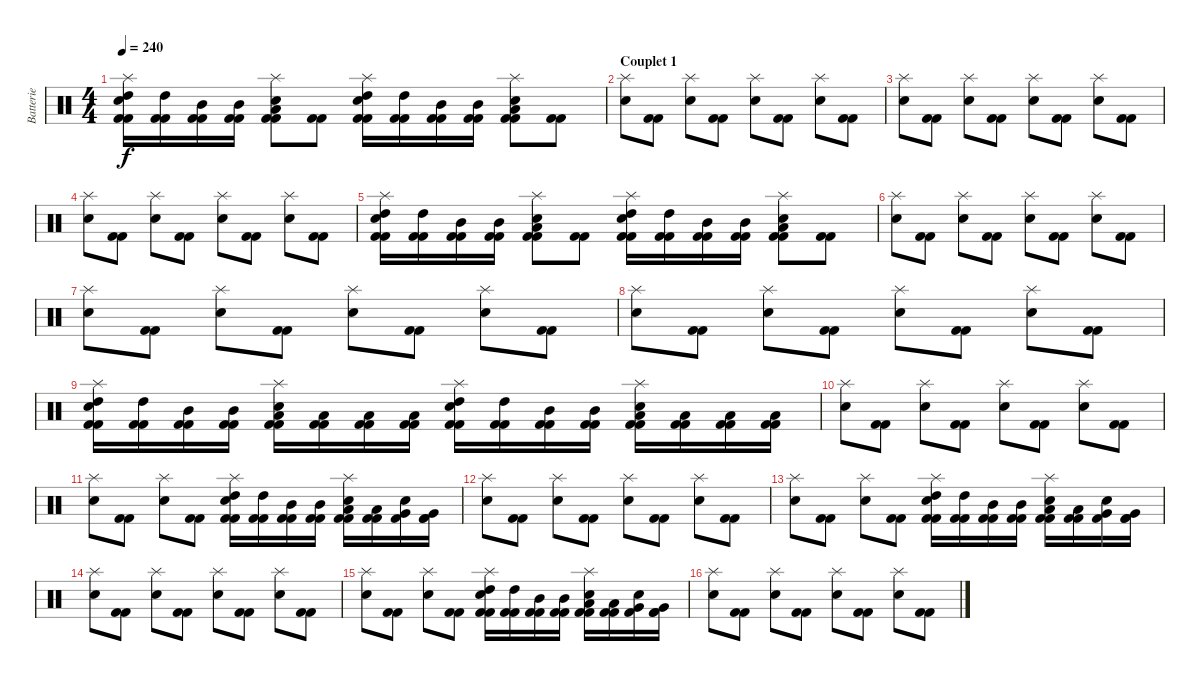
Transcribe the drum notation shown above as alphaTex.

\track ("Batterie" "Batterie") {instrument percussion}
\staff {score}
\articulation defaults
\ts (4 4)
\tempo 240
\clef neutral
\ks c
("Splash (hit)" "Snare (hit) 2" "High Tom (hit)" "Kick (hit) 2" "Kick (hit) 2").16{dy f} ("High Tom (hit)" "Kick (hit) 2" "Kick (hit) 2").16 ("Mid Tom (hit)" "Kick (hit) 2" "Kick (hit) 2").16 ("Mid Tom (hit)" "Kick (hit) 2" "Kick (hit) 2").16 ("Splash (hit)" "Snare (hit) 2" "Low Tom (hit)" "Kick (hit) 2" "Kick (hit) 2").8 ("Kick (hit) 2" "Kick (hit) 2").8 ("Splash (hit)" "Snare (hit) 2" "High Tom (hit)" "Kick (hit) 2" "Kick (hit) 2").16 ("High Tom (hit)" "Kick (hit) 2" "Kick (hit) 2").16 ("Mid Tom (hit)" "Kick (hit) 2" "Kick (hit) 2").16 ("Mid Tom (hit)" "Kick (hit) 2" "Kick (hit) 2").16 ("Splash (hit)" "Snare (hit) 2" "Low Tom (hit)" "Kick (hit) 2" "Kick (hit) 2").8 ("Kick (hit) 2" "Kick (hit) 2").8 |
\section ("" "Couplet 1")
("Splash (hit)" "Snare (hit) 2").8 ("Kick (hit) 2" "Kick (hit) 2").8 ("Splash (hit)" "Snare (hit) 2").8 ("Kick (hit) 2" "Kick (hit) 2").8 ("Splash (hit)" "Snare (hit) 2").8 ("Kick (hit) 2" "Kick (hit) 2").8 ("Splash (hit)" "Snare (hit) 2").8 ("Kick (hit) 2" "Kick (hit) 2").8 |
("Splash (hit)" "Snare (hit) 2").8 ("Kick (hit) 2" "Kick (hit) 2").8 ("Splash (hit)" "Snare (hit) 2").8 ("Kick (hit) 2" "Kick (hit) 2").8 ("Splash (hit)" "Snare (hit) 2").8 ("Kick (hit) 2" "Kick (hit) 2").8 ("Splash (hit)" "Snare (hit) 2").8 ("Kick (hit) 2" "Kick (hit) 2").8 |
("Splash (hit)" "Snare (hit) 2").8 ("Kick (hit) 2" "Kick (hit) 2").8 ("Splash (hit)" "Snare (hit) 2").8 ("Kick (hit) 2" "Kick (hit) 2").8 ("Splash (hit)" "Snare (hit) 2").8 ("Kick (hit) 2" "Kick (hit) 2").8 ("Splash (hit)" "Snare (hit) 2").8 ("Kick (hit) 2" "Kick (hit) 2").8 |
("Splash (hit)" "Snare (hit) 2" "High Tom (hit)" "Kick (hit) 2" "Kick (hit) 2").16 ("High Tom (hit)" "Kick (hit) 2" "Kick (hit) 2").16 ("Mid Tom (hit)" "Kick (hit) 2" "Kick (hit) 2").16 ("Mid Tom (hit)" "Kick (hit) 2" "Kick (hit) 2").16 ("Splash (hit)" "Snare (hit) 2" "Low Tom (hit)" "Kick (hit) 2" "Kick (hit) 2").8 ("Kick (hit) 2" "Kick (hit) 2").8 ("Splash (hit)" "Snare (hit) 2" "High Tom (hit)" "Kick (hit) 2" "Kick (hit) 2").16 ("High Tom (hit)" "Kick (hit) 2" "Kick (hit) 2").16 ("Mid Tom (hit)" "Kick (hit) 2" "Kick (hit) 2").16 ("Mid Tom (hit)" "Kick (hit) 2" "Kick (hit) 2").16 ("Splash (hit)" "Snare (hit) 2" "Low Tom (hit)" "Kick (hit) 2" "Kick (hit) 2").8 ("Kick (hit) 2" "Kick (hit) 2").8 |
("Splash (hit)" "Snare (hit) 2").8 ("Kick (hit) 2" "Kick (hit) 2").8 ("Splash (hit)" "Snare (hit) 2").8 ("Kick (hit) 2" "Kick (hit) 2").8 ("Splash (hit)" "Snare (hit) 2").8 ("Kick (hit) 2" "Kick (hit) 2").8 ("Splash (hit)" "Snare (hit) 2").8 ("Kick (hit) 2" "Kick (hit) 2").8 |
("Splash (hit)" "Snare (hit) 2").8 ("Kick (hit) 2" "Kick (hit) 2").8 ("Splash (hit)" "Snare (hit) 2").8 ("Kick (hit) 2" "Kick (hit) 2").8 ("Splash (hit)" "Snare (hit) 2").8 ("Kick (hit) 2" "Kick (hit) 2").8 ("Splash (hit)" "Snare (hit) 2").8 ("Kick (hit) 2" "Kick (hit) 2").8 |
("Splash (hit)" "Snare (hit) 2").8 ("Kick (hit) 2" "Kick (hit) 2").8 ("Splash (hit)" "Snare (hit) 2").8 ("Kick (hit) 2" "Kick (hit) 2").8 ("Splash (hit)" "Snare (hit) 2").8 ("Kick (hit) 2" "Kick (hit) 2").8 ("Splash (hit)" "Snare (hit) 2").8 ("Kick (hit) 2" "Kick (hit) 2").8 |
("Splash (hit)" "Snare (hit) 2" "High Tom (hit)" "Kick (hit) 2" "Kick (hit) 2").16 ("High Tom (hit)" "Kick (hit) 2" "Kick (hit) 2").16 ("Mid Tom (hit)" "Kick (hit) 2" "Kick (hit) 2").16 ("Mid Tom (hit)" "Kick (hit) 2" "Kick (hit) 2").16 ("Splash (hit)" "Snare (hit) 2" "Low Tom (hit)" "Kick (hit) 2" "Kick (hit) 2").16 ("Low Tom (hit)" "Kick (hit) 2" "Kick (hit) 2").16 ("Low Tom (hit)" "Kick (hit) 2" "Kick (hit) 2").16 ("Low Tom (hit)" "Kick (hit) 2" "Kick (hit) 2").16 ("Splash (hit)" "Snare (hit) 2" "High Tom (hit)" "Kick (hit) 2" "Kick (hit) 2").16 ("High Tom (hit)" "Kick (hit) 2" "Kick (hit) 2").16 ("Mid Tom (hit)" "Kick (hit) 2" "Kick (hit) 2").16 ("Mid Tom (hit)" "Kick (hit) 2" "Kick (hit) 2").16 ("Splash (hit)" "Snare (hit) 2" "Low Tom (hit)" "Kick (hit) 2" "Kick (hit) 2").16 ("Low Tom (hit)" "Kick (hit) 2" "Kick (hit) 2").16 ("Low Tom (hit)" "Kick (hit) 2" "Kick (hit) 2").16 ("Low Tom (hit)" "Kick (hit) 2" "Kick (hit) 2").16 |
("Splash (hit)" "Snare (hit) 2").8 ("Kick (hit) 2" "Kick (hit) 2").8 ("Splash (hit)" "Snare (hit) 2").8 ("Kick (hit) 2" "Kick (hit) 2").8 ("Splash (hit)" "Snare (hit) 2").8 ("Kick (hit) 2" "Kick (hit) 2").8 ("Splash (hit)" "Snare (hit) 2").8 ("Kick (hit) 2" "Kick (hit) 2").8 |
("Splash (hit)" "Snare (hit) 2").8 ("Kick (hit) 2" "Kick (hit) 2").8 ("Splash (hit)" "Snare (hit) 2").8 ("Kick (hit) 2" "Kick (hit) 2").8 ("Splash (hit)" "Snare (hit) 2" "High Tom (hit)" "Kick (hit) 2" "Kick (hit) 2").16 ("High Tom (hit)" "Kick (hit) 2" "Kick (hit) 2").16 ("Mid Tom (hit)" "Kick (hit) 2" "Kick (hit) 2").16 ("Mid Tom (hit)" "Kick (hit) 2" "Kick (hit) 2").16 ("Splash (hit)" "Snare (hit) 2" "Low Tom (hit)" "Kick (hit) 2" "Kick (hit) 2").16 ("Low Tom (hit)" "Kick (hit) 2" "Kick (hit) 2").16 ("Very Low Tom (hit)" "Kick (hit) 2" "Snare (hit)").16 ("Very Low Tom (hit)" "Kick (hit) 2" "Kick (hit) 2").16 |
("Splash (hit)" "Snare (hit) 2").8 ("Kick (hit) 2" "Kick (hit) 2").8 ("Splash (hit)" "Snare (hit) 2").8 ("Kick (hit) 2" "Kick (hit) 2").8 ("Splash (hit)" "Snare (hit) 2").8 ("Kick (hit) 2" "Kick (hit) 2").8 ("Splash (hit)" "Snare (hit) 2").8 ("Kick (hit) 2" "Kick (hit) 2").8 |
("Splash (hit)" "Snare (hit) 2").8 ("Kick (hit) 2" "Kick (hit) 2").8 ("Splash (hit)" "Snare (hit) 2").8 ("Kick (hit) 2" "Kick (hit) 2").8 ("Splash (hit)" "Snare (hit) 2" "High Tom (hit)" "Kick (hit) 2" "Kick (hit) 2").16 ("High Tom (hit)" "Kick (hit) 2" "Kick (hit) 2").16 ("Mid Tom (hit)" "Kick (hit) 2" "Kick (hit) 2").16 ("Mid Tom (hit)" "Kick (hit) 2" "Kick (hit) 2").16 ("Splash (hit)" "Snare (hit) 2" "Low Tom (hit)" "Kick (hit) 2" "Kick (hit) 2").16 ("Low Tom (hit)" "Kick (hit) 2" "Kick (hit) 2").16 ("Very Low Tom (hit)" "Kick (hit) 2" "Snare (hit)").16 ("Very Low Tom (hit)" "Kick (hit) 2" "Kick (hit) 2").16 |
("Splash (hit)" "Snare (hit) 2").8 ("Kick (hit) 2" "Kick (hit) 2").8 ("Splash (hit)" "Snare (hit) 2").8 ("Kick (hit) 2" "Kick (hit) 2").8 ("Splash (hit)" "Snare (hit) 2").8 ("Kick (hit) 2" "Kick (hit) 2").8 ("Splash (hit)" "Snare (hit) 2").8 ("Kick (hit) 2" "Kick (hit) 2").8 |
("Splash (hit)" "Snare (hit) 2").8 ("Kick (hit) 2" "Kick (hit) 2").8 ("Splash (hit)" "Snare (hit) 2").8 ("Kick (hit) 2" "Kick (hit) 2").8 ("Splash (hit)" "Snare (hit) 2" "High Tom (hit)" "Kick (hit) 2" "Kick (hit) 2").16 ("High Tom (hit)" "Kick (hit) 2" "Kick (hit) 2").16 ("Mid Tom (hit)" "Kick (hit) 2" "Kick (hit) 2").16 ("Mid Tom (hit)" "Kick (hit) 2" "Kick (hit) 2").16 ("Splash (hit)" "Snare (hit) 2" "Low Tom (hit)" "Kick (hit) 2" "Kick (hit) 2").16 ("Low Tom (hit)" "Kick (hit) 2" "Kick (hit) 2").16 ("Very Low Tom (hit)" "Kick (hit) 2" "Snare (hit)").16 ("Very Low Tom (hit)" "Kick (hit) 2" "Kick (hit) 2").16 |
("Splash (hit)" "Snare (hit) 2").8 ("Kick (hit) 2" "Kick (hit) 2").8 ("Splash (hit)" "Snare (hit) 2").8 ("Kick (hit) 2" "Kick (hit) 2").8 ("Splash (hit)" "Snare (hit) 2").8 ("Kick (hit) 2" "Kick (hit) 2").8 ("Splash (hit)" "Snare (hit) 2").8 ("Kick (hit) 2" "Kick (hit) 2").8
